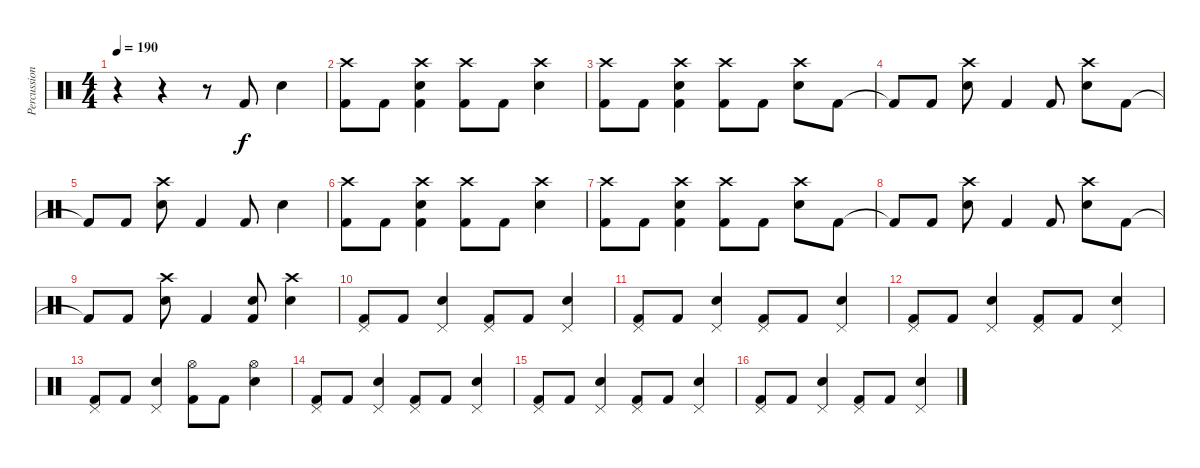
\track ("Percussion" "Percussion") {instrument percussion}
\staff {score}
\articulation defaults
\ts (4 4)
\tempo 190
\clef neutral
\ks c
r.4{dy f} r.4 r.8 "Kick (hit) 2".8 "Electric Snare (hit)".4 |
("Crash high (hit)" "Kick (hit) 2").8 "Kick (hit) 2".8 ("Crash high (hit)" "Electric Snare (hit)" "Kick (hit) 2").4 ("Crash high (hit)" "Kick (hit) 2").8 "Kick (hit) 2".8 ("Crash high (hit)" "Electric Snare (hit)").4 |
("Crash high (hit)" "Kick (hit) 2").8 "Kick (hit) 2".8 ("Crash high (hit)" "Electric Snare (hit)" "Kick (hit) 2").4 ("Crash high (hit)" "Kick (hit) 2").8 "Kick (hit) 2".8 ("Crash high (hit)" "Electric Snare (hit)").8 "Kick (hit) 2".8 |
"Kick (hit) 2"{t}.8 "Kick (hit) 2".8 ("Crash high (hit)" "Electric Snare (hit)").8 "Kick (hit) 2".4 "Kick (hit) 2".8 ("Crash high (hit)" "Electric Snare (hit)").8 "Kick (hit) 2".8 |
"Kick (hit) 2"{t}.8 "Kick (hit) 2".8 ("Crash high (hit)" "Electric Snare (hit)").8 "Kick (hit) 2".4 "Kick (hit) 2".8 "Electric Snare (hit)".4 |
("Crash high (hit)" "Kick (hit) 2").8 "Kick (hit) 2".8 ("Crash high (hit)" "Electric Snare (hit)" "Kick (hit) 2").4 ("Crash high (hit)" "Kick (hit) 2").8 "Kick (hit) 2".8 ("Crash high (hit)" "Electric Snare (hit)").4 |
("Crash high (hit)" "Kick (hit) 2").8 "Kick (hit) 2".8 ("Crash high (hit)" "Electric Snare (hit)" "Kick (hit) 2").4 ("Crash high (hit)" "Kick (hit) 2").8 "Kick (hit) 2".8 ("Crash high (hit)" "Electric Snare (hit)").8 "Kick (hit) 2".8 |
"Kick (hit) 2"{t}.8 "Kick (hit) 2".8 ("Crash high (hit)" "Electric Snare (hit)").8 "Kick (hit) 2".4 "Kick (hit) 2".8 ("Crash high (hit)" "Electric Snare (hit)").8 "Kick (hit) 2".8 |
"Kick (hit) 2"{t}.8 "Kick (hit) 2".8 ("Crash high (hit)" "Electric Snare (hit)").8 "Kick (hit) 2".4 ("Electric Snare (hit)" "Kick (hit) 2").8 ("Crash high (hit)" "Electric Snare (hit)").4 |
("Pedal Hi-Hat (hit)" "Kick (hit) 2").8 "Kick (hit) 2".8 ("Pedal Hi-Hat (hit)" "Electric Snare (hit)").4 ("Pedal Hi-Hat (hit)" "Kick (hit) 2").8 "Kick (hit) 2".8 ("Pedal Hi-Hat (hit)" "Electric Snare (hit)").4 |
("Pedal Hi-Hat (hit)" "Kick (hit) 2").8 "Kick (hit) 2".8 ("Pedal Hi-Hat (hit)" "Electric Snare (hit)").4 ("Pedal Hi-Hat (hit)" "Kick (hit) 2").8 "Kick (hit) 2".8 ("Pedal Hi-Hat (hit)" "Electric Snare (hit)").4 |
("Pedal Hi-Hat (hit)" "Kick (hit) 2").8 "Kick (hit) 2".8 ("Pedal Hi-Hat (hit)" "Electric Snare (hit)").4 ("Pedal Hi-Hat (hit)" "Kick (hit) 2").8 "Kick (hit) 2".8 ("Pedal Hi-Hat (hit)" "Electric Snare (hit)").4 |
("Pedal Hi-Hat (hit)" "Kick (hit) 2").8 "Kick (hit) 2".8 ("Pedal Hi-Hat (hit)" "Electric Snare (hit)").4 ("Hi-Hat (open)" "Kick (hit) 2").8 "Kick (hit) 2".8 ("Hi-Hat (open)" "Electric Snare (hit)").4 |
("Pedal Hi-Hat (hit)" "Kick (hit) 2").8 "Kick (hit) 2".8 ("Pedal Hi-Hat (hit)" "Electric Snare (hit)").4 ("Pedal Hi-Hat (hit)" "Kick (hit) 2").8 "Kick (hit) 2".8 ("Pedal Hi-Hat (hit)" "Electric Snare (hit)").4 |
("Pedal Hi-Hat (hit)" "Kick (hit) 2").8 "Kick (hit) 2".8 ("Pedal Hi-Hat (hit)" "Electric Snare (hit)").4 ("Pedal Hi-Hat (hit)" "Kick (hit) 2").8 "Kick (hit) 2".8 ("Pedal Hi-Hat (hit)" "Electric Snare (hit)").4 |
("Pedal Hi-Hat (hit)" "Kick (hit) 2").8 "Kick (hit) 2".8 ("Pedal Hi-Hat (hit)" "Electric Snare (hit)").4 ("Pedal Hi-Hat (hit)" "Kick (hit) 2").8 "Kick (hit) 2".8 ("Pedal Hi-Hat (hit)" "Electric Snare (hit)").4
